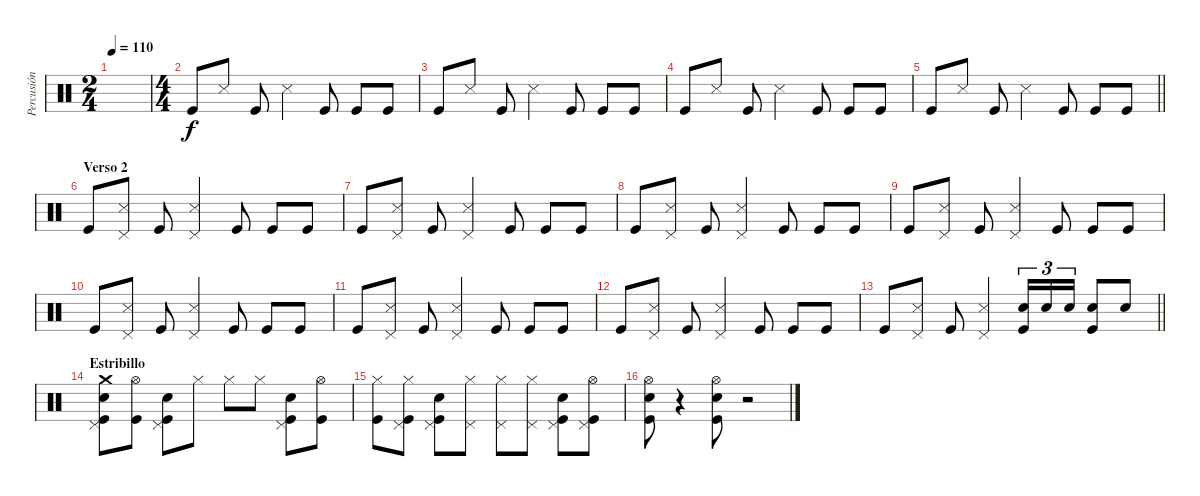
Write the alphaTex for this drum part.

\track ("Percusión" "Percusión") {instrument percussion}
\staff {score}
\articulation defaults
\ts (2 4)
\tempo 110
\clef neutral
\ks c
|
\ts (4 4)
"Kick (hit)".8 "Metronome (hit)".8 "Kick (hit)".8 "Metronome (hit)".4 "Kick (hit)".8 "Kick (hit)".8 "Kick (hit)".8 |
"Kick (hit)".8 "Metronome (hit)".8 "Kick (hit)".8 "Metronome (hit)".4 "Kick (hit)".8 "Kick (hit)".8 "Kick (hit)".8 |
"Kick (hit)".8 "Metronome (hit)".8 "Kick (hit)".8 "Metronome (hit)".4 "Kick (hit)".8 "Kick (hit)".8 "Kick (hit)".8 |
\barLineRight lightlight "Kick (hit)".8 "Metronome (hit)".8 "Kick (hit)".8 "Metronome (hit)".4 "Kick (hit)".8 "Kick (hit)".8 "Kick (hit)".8
|
\section ("" "Verso 2")
"Kick (hit)".8 ("Metronome (hit)" "Pedal Hi-Hat (hit)").8 "Kick (hit)".8 ("Metronome (hit)" "Pedal Hi-Hat (hit)").4 "Kick (hit)".8 "Kick (hit)".8 "Kick (hit)".8 |
"Kick (hit)".8 ("Metronome (hit)" "Pedal Hi-Hat (hit)").8 "Kick (hit)".8 ("Metronome (hit)" "Pedal Hi-Hat (hit)").4 "Kick (hit)".8 "Kick (hit)".8 "Kick (hit)".8 |
"Kick (hit)".8 ("Metronome (hit)" "Pedal Hi-Hat (hit)").8 "Kick (hit)".8 ("Metronome (hit)" "Pedal Hi-Hat (hit)").4 "Kick (hit)".8 "Kick (hit)".8 "Kick (hit)".8 |
"Kick (hit)".8 ("Metronome (hit)" "Pedal Hi-Hat (hit)").8 "Kick (hit)".8 ("Metronome (hit)" "Pedal Hi-Hat (hit)").4 "Kick (hit)".8 "Kick (hit)".8 "Kick (hit)".8 |
"Kick (hit)".8 ("Metronome (hit)" "Pedal Hi-Hat (hit)").8 "Kick (hit)".8 ("Metronome (hit)" "Pedal Hi-Hat (hit)").4 "Kick (hit)".8 "Kick (hit)".8 "Kick (hit)".8 |
"Kick (hit)".8 ("Metronome (hit)" "Pedal Hi-Hat (hit)").8 "Kick (hit)".8 ("Metronome (hit)" "Pedal Hi-Hat (hit)").4 "Kick (hit)".8 "Kick (hit)".8 "Kick (hit)".8 |
"Kick (hit)".8 ("Metronome (hit)" "Pedal Hi-Hat (hit)").8 "Kick (hit)".8 ("Metronome (hit)" "Pedal Hi-Hat (hit)").4 "Kick (hit)".8 "Kick (hit)".8 "Kick (hit)".8 |
\barLineRight lightlight "Kick (hit)".8
("Metronome (hit)" "Pedal Hi-Hat (hit)").8 "Kick (hit)".8 ("Metronome (hit)" "Pedal Hi-Hat (hit)").4 ("Electric Snare (hit)" "Kick (hit)").16{tu (3 2)} "Electric Snare (hit)".16{tu (3 2)} "Electric Snare (hit)".16{tu (3 2)} ("Electric Snare (hit)" "Kick (hit)").8 "Electric Snare (hit)".8 |
\section ("" "Estribillo")
("Crash medium (hit)" "Electric Snare (hit)" "Kick (hit)" "Pedal Hi-Hat (hit)").8 ("Hi-Hat (open)" "Kick (hit)").8 ("Electric Snare (hit)" "Kick (hit)" "Pedal Hi-Hat (hit)").8 "Hi-Hat (closed)".8 "Hi-Hat (closed)".8 "Hi-Hat (closed)".8 ("Electric Snare (hit)" "Kick (hit)" "Pedal Hi-Hat (hit)").8 ("Hi-Hat (open)" "Kick (hit)").8 |
("Hi-Hat (closed)" "Kick (hit)").8 ("Hi-Hat (closed)" "Kick (hit)" "Pedal Hi-Hat (hit)").8 ("Electric Snare (hit)" "Kick (hit)" "Pedal Hi-Hat (hit)").8 ("Hi-Hat (closed)" "Pedal Hi-Hat (hit)").8 ("Hi-Hat (closed)" "Pedal Hi-Hat (hit)").8 ("Hi-Hat (closed)" "Pedal Hi-Hat (hit)").8 ("Electric Snare (hit)" "Kick (hit)" "Pedal Hi-Hat (hit)").8 ("Hi-Hat (open)" "Kick (hit)" "Pedal Hi-Hat (hit)").8 |
("Hi-Hat (open)" "Electric Snare (hit)" "Kick (hit)").8 r.4 ("Hi-Hat (open)" "Electric Snare (hit)" "Kick (hit)").8 r.2
